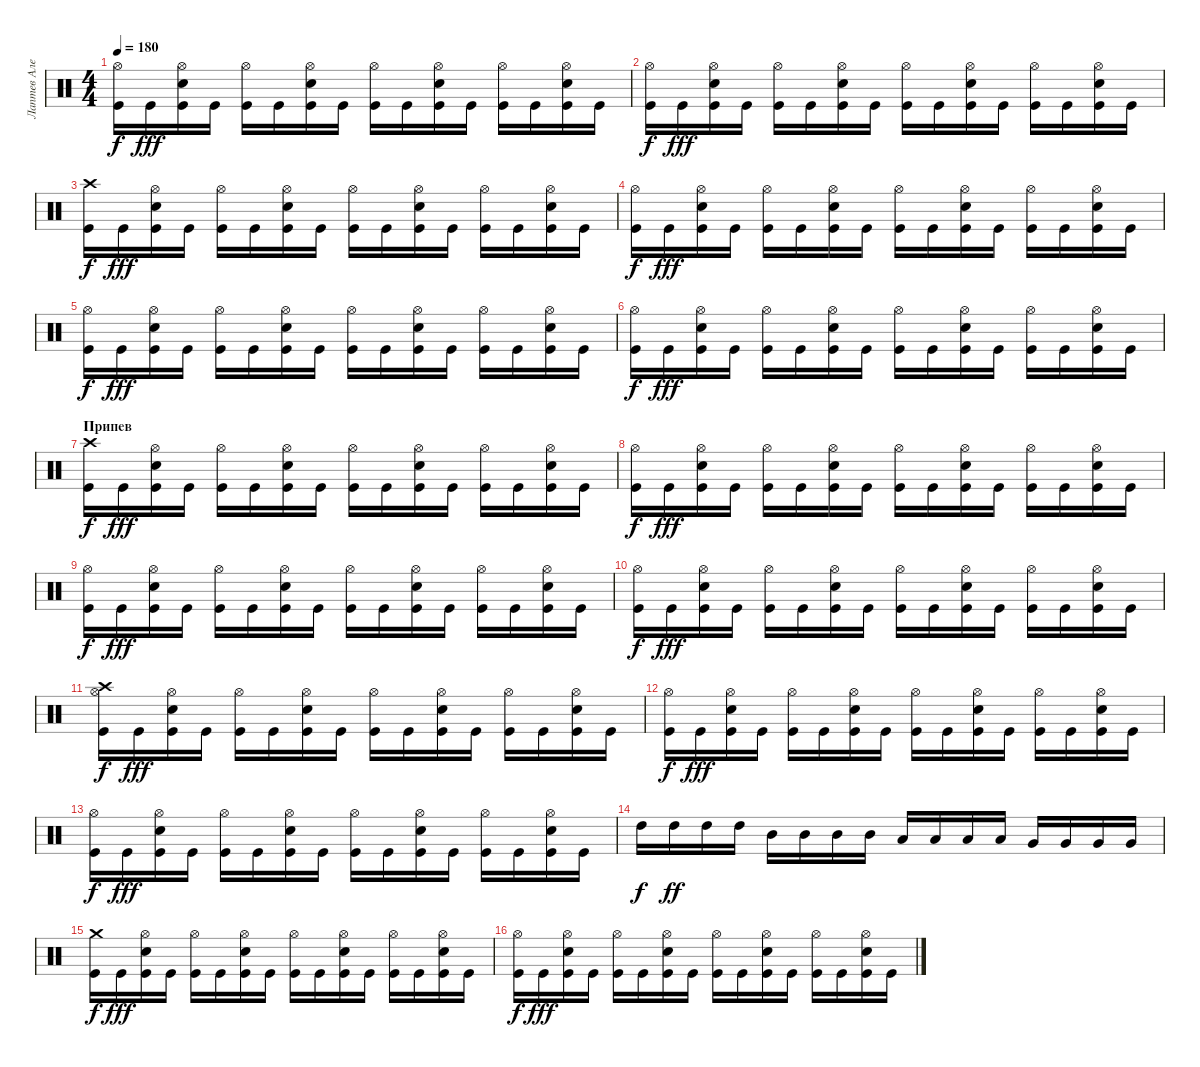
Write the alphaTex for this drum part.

\track ("Лаптев Алексей" "Лаптев Але") {instrument percussion}
\staff {score}
\articulation defaults
\ts (4 4)
\tempo 180
\clef neutral
\ks c
("Hi-Hat (open)" "Kick (hit)").16{dy f} "Kick (hit)".16{dy fff} ("Hi-Hat (open)" "Snare (hit) 2" "Kick (hit)").16 "Kick (hit)".16 ("Hi-Hat (open)" "Kick (hit)").16 "Kick (hit)".16 ("Snare (hit) 2" "Hi-Hat (open)" "Kick (hit)").16 "Kick (hit)".16 ("Hi-Hat (open)" "Kick (hit)").16 "Kick (hit)".16 ("Hi-Hat (open)" "Snare (hit) 2" "Kick (hit)").16 "Kick (hit)".16 ("Hi-Hat (open)" "Kick (hit)").16 "Kick (hit)".16 ("Hi-Hat (open)" "Snare (hit) 2" "Kick (hit)").16 "Kick (hit)".16 |
("Hi-Hat (open)" "Kick (hit)").16{dy f} "Kick (hit)".16{dy fff} ("Hi-Hat (open)" "Snare (hit) 2" "Kick (hit)").16 "Kick (hit)".16 ("Hi-Hat (open)" "Kick (hit)").16 "Kick (hit)".16 ("Snare (hit) 2" "Hi-Hat (open)" "Kick (hit)").16 "Kick (hit)".16 ("Hi-Hat (open)" "Kick (hit)").16 "Kick (hit)".16 ("Hi-Hat (open)" "Snare (hit) 2" "Kick (hit)").16 "Kick (hit)".16 ("Hi-Hat (open)" "Kick (hit)").16 "Kick (hit)".16 ("Hi-Hat (open)" "Snare (hit) 2" "Kick (hit)").16 "Kick (hit)".16 |
("Crash high (hit)" "Kick (hit)").16{dy f} "Kick (hit)".16{dy fff} ("Hi-Hat (open)" "Snare (hit) 2" "Kick (hit)").16 "Kick (hit)".16 ("Hi-Hat (open)" "Kick (hit)").16 "Kick (hit)".16 ("Snare (hit) 2" "Hi-Hat (open)" "Kick (hit)").16 "Kick (hit)".16 ("Hi-Hat (open)" "Kick (hit)").16 "Kick (hit)".16 ("Hi-Hat (open)" "Snare (hit) 2" "Kick (hit)").16 "Kick (hit)".16 ("Hi-Hat (open)" "Kick (hit)").16 "Kick (hit)".16 ("Hi-Hat (open)" "Snare (hit) 2" "Kick (hit)").16 "Kick (hit)".16 |
("Hi-Hat (open)" "Kick (hit)").16{dy f} "Kick (hit)".16{dy fff} ("Hi-Hat (open)" "Snare (hit) 2" "Kick (hit)").16 "Kick (hit)".16 ("Hi-Hat (open)" "Kick (hit)").16 "Kick (hit)".16 ("Snare (hit) 2" "Hi-Hat (open)" "Kick (hit)").16 "Kick (hit)".16 ("Hi-Hat (open)" "Kick (hit)").16 "Kick (hit)".16 ("Hi-Hat (open)" "Snare (hit) 2" "Kick (hit)").16 "Kick (hit)".16 ("Hi-Hat (open)" "Kick (hit)").16 "Kick (hit)".16 ("Hi-Hat (open)" "Snare (hit) 2" "Kick (hit)").16 "Kick (hit)".16 |
("Hi-Hat (open)" "Kick (hit)").16{dy f} "Kick (hit)".16{dy fff} ("Hi-Hat (open)" "Snare (hit) 2" "Kick (hit)").16 "Kick (hit)".16 ("Hi-Hat (open)" "Kick (hit)").16 "Kick (hit)".16 ("Snare (hit) 2" "Hi-Hat (open)" "Kick (hit)").16 "Kick (hit)".16 ("Hi-Hat (open)" "Kick (hit)").16 "Kick (hit)".16 ("Hi-Hat (open)" "Snare (hit) 2" "Kick (hit)").16 "Kick (hit)".16 ("Hi-Hat (open)" "Kick (hit)").16 "Kick (hit)".16 ("Hi-Hat (open)" "Snare (hit) 2" "Kick (hit)").16 "Kick (hit)".16 |
("Hi-Hat (open)" "Kick (hit)").16{dy f} "Kick (hit)".16{dy fff} ("Hi-Hat (open)" "Snare (hit) 2" "Kick (hit)").16 "Kick (hit)".16 ("Hi-Hat (open)" "Kick (hit)").16 "Kick (hit)".16 ("Snare (hit) 2" "Hi-Hat (open)" "Kick (hit)").16 "Kick (hit)".16 ("Hi-Hat (open)" "Kick (hit)").16 "Kick (hit)".16 ("Hi-Hat (open)" "Snare (hit) 2" "Kick (hit)").16 "Kick (hit)".16 ("Hi-Hat (open)" "Kick (hit)").16 "Kick (hit)".16 ("Hi-Hat (open)" "Snare (hit) 2" "Kick (hit)").16 "Kick (hit)".16 |
\section ("" "Припев")
("Crash high (hit)" "Kick (hit)").16{dy f} "Kick (hit)".16{dy fff} ("Hi-Hat (open)" "Snare (hit) 2" "Kick (hit)").16 "Kick (hit)".16 ("Hi-Hat (open)" "Kick (hit)").16 "Kick (hit)".16 ("Snare (hit) 2" "Hi-Hat (open)" "Kick (hit)").16 "Kick (hit)".16 ("Hi-Hat (open)" "Kick (hit)").16 "Kick (hit)".16 ("Hi-Hat (open)" "Snare (hit) 2" "Kick (hit)").16 "Kick (hit)".16 ("Hi-Hat (open)" "Kick (hit)").16 "Kick (hit)".16 ("Hi-Hat (open)" "Snare (hit) 2" "Kick (hit)").16 "Kick (hit)".16 |
("Hi-Hat (open)" "Kick (hit)").16{dy f} "Kick (hit)".16{dy fff} ("Hi-Hat (open)" "Snare (hit) 2" "Kick (hit)").16 "Kick (hit)".16 ("Hi-Hat (open)" "Kick (hit)").16 "Kick (hit)".16 ("Snare (hit) 2" "Hi-Hat (open)" "Kick (hit)").16 "Kick (hit)".16 ("Hi-Hat (open)" "Kick (hit)").16 "Kick (hit)".16 ("Hi-Hat (open)" "Snare (hit) 2" "Kick (hit)").16 "Kick (hit)".16 ("Hi-Hat (open)" "Kick (hit)").16 "Kick (hit)".16 ("Hi-Hat (open)" "Snare (hit) 2" "Kick (hit)").16 "Kick (hit)".16 |
("Hi-Hat (open)" "Kick (hit)").16{dy f} "Kick (hit)".16{dy fff} ("Hi-Hat (open)" "Snare (hit) 2" "Kick (hit)").16 "Kick (hit)".16 ("Hi-Hat (open)" "Kick (hit)").16 "Kick (hit)".16 ("Snare (hit) 2" "Hi-Hat (open)" "Kick (hit)").16 "Kick (hit)".16 ("Hi-Hat (open)" "Kick (hit)").16 "Kick (hit)".16 ("Hi-Hat (open)" "Snare (hit) 2" "Kick (hit)").16 "Kick (hit)".16 ("Hi-Hat (open)" "Kick (hit)").16 "Kick (hit)".16 ("Hi-Hat (open)" "Snare (hit) 2" "Kick (hit)").16 "Kick (hit)".16 |
("Hi-Hat (open)" "Kick (hit)").16{dy f} "Kick (hit)".16{dy fff} ("Hi-Hat (open)" "Snare (hit) 2" "Kick (hit)").16 "Kick (hit)".16 ("Hi-Hat (open)" "Kick (hit)").16 "Kick (hit)".16 ("Snare (hit) 2" "Hi-Hat (open)" "Kick (hit)").16 "Kick (hit)".16 ("Hi-Hat (open)" "Kick (hit)").16 "Kick (hit)".16 ("Hi-Hat (open)" "Snare (hit) 2" "Kick (hit)").16 "Kick (hit)".16 ("Hi-Hat (open)" "Kick (hit)").16 "Kick (hit)".16 ("Hi-Hat (open)" "Snare (hit) 2" "Kick (hit)").16 "Kick (hit)".16 |
("Hi-Hat (open)" "Kick (hit)" "Crash high (hit)").16{dy f} "Kick (hit)".16{dy fff} ("Hi-Hat (open)" "Snare (hit) 2" "Kick (hit)").16 "Kick (hit)".16 ("Hi-Hat (open)" "Kick (hit)").16 "Kick (hit)".16 ("Snare (hit) 2" "Hi-Hat (open)" "Kick (hit)").16 "Kick (hit)".16 ("Hi-Hat (open)" "Kick (hit)").16 "Kick (hit)".16 ("Hi-Hat (open)" "Snare (hit) 2" "Kick (hit)").16 "Kick (hit)".16 ("Hi-Hat (open)" "Kick (hit)").16 "Kick (hit)".16 ("Hi-Hat (open)" "Snare (hit) 2" "Kick (hit)").16 "Kick (hit)".16 |
("Hi-Hat (open)" "Kick (hit)").16{dy f} "Kick (hit)".16{dy fff} ("Hi-Hat (open)" "Snare (hit) 2" "Kick (hit)").16 "Kick (hit)".16 ("Hi-Hat (open)" "Kick (hit)").16 "Kick (hit)".16 ("Snare (hit) 2" "Hi-Hat (open)" "Kick (hit)").16 "Kick (hit)".16 ("Hi-Hat (open)" "Kick (hit)").16 "Kick (hit)".16 ("Hi-Hat (open)" "Snare (hit) 2" "Kick (hit)").16 "Kick (hit)".16 ("Hi-Hat (open)" "Kick (hit)").16 "Kick (hit)".16 ("Hi-Hat (open)" "Snare (hit) 2" "Kick (hit)").16 "Kick (hit)".16 |
("Hi-Hat (open)" "Kick (hit)").16{dy f} "Kick (hit)".16{dy fff} ("Hi-Hat (open)" "Snare (hit) 2" "Kick (hit)").16 "Kick (hit)".16 ("Hi-Hat (open)" "Kick (hit)").16 "Kick (hit)".16 ("Snare (hit) 2" "Hi-Hat (open)" "Kick (hit)").16 "Kick (hit)".16 ("Hi-Hat (open)" "Kick (hit)").16 "Kick (hit)".16 ("Hi-Hat (open)" "Snare (hit) 2" "Kick (hit)").16 "Kick (hit)".16 ("Hi-Hat (open)" "Kick (hit)").16 "Kick (hit)".16 ("Hi-Hat (open)" "Snare (hit) 2" "Kick (hit)").16 "Kick (hit)".16 |
"High Tom (hit)".16{dy f} "High Tom (hit)".16{dy ff} "High Tom (hit)".16 "High Tom (hit)".16 "Mid Tom (hit)".16 "Mid Tom (hit)".16 "Mid Tom (hit)".16 "Mid Tom (hit)".16 "Low Tom (hit)".16 "Low Tom (hit)".16 "Low Tom (hit)".16 "Low Tom (hit)".16 "Very Low Tom (hit)".16 "Very Low Tom (hit)".16 "Very Low Tom (hit)".16 "Very Low Tom (hit)".16 |
("Crash medium (hit)" "Kick (hit)").16{dy f} "Kick (hit)".16{dy fff} ("Hi-Hat (open)" "Snare (hit) 2" "Kick (hit)").16 "Kick (hit)".16 ("Hi-Hat (open)" "Kick (hit)").16 "Kick (hit)".16 ("Snare (hit) 2" "Hi-Hat (open)" "Kick (hit)").16 "Kick (hit)".16 ("Hi-Hat (open)" "Kick (hit)").16 "Kick (hit)".16 ("Hi-Hat (open)" "Snare (hit) 2" "Kick (hit)").16 "Kick (hit)".16 ("Hi-Hat (open)" "Kick (hit)").16 "Kick (hit)".16 ("Hi-Hat (open)" "Snare (hit) 2" "Kick (hit)").16 "Kick (hit)".16 |
("Hi-Hat (open)" "Kick (hit)").16{dy f} "Kick (hit)".16{dy fff} ("Hi-Hat (open)" "Snare (hit) 2" "Kick (hit)").16 "Kick (hit)".16 ("Hi-Hat (open)" "Kick (hit)").16 "Kick (hit)".16 ("Snare (hit) 2" "Hi-Hat (open)" "Kick (hit)").16 "Kick (hit)".16 ("Hi-Hat (open)" "Kick (hit)").16 "Kick (hit)".16 ("Hi-Hat (open)" "Snare (hit) 2" "Kick (hit)").16 "Kick (hit)".16 ("Hi-Hat (open)" "Kick (hit)").16 "Kick (hit)".16 ("Hi-Hat (open)" "Snare (hit) 2" "Kick (hit)").16 "Kick (hit)".16
